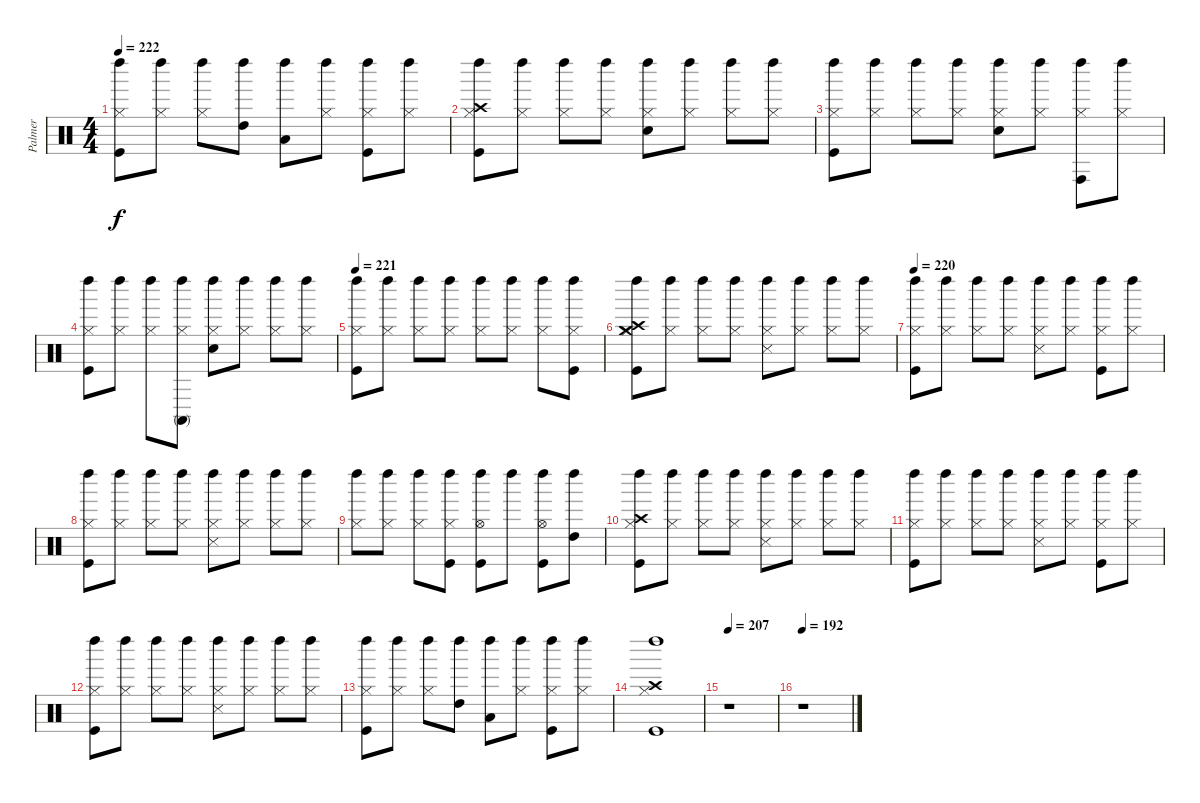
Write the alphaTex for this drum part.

\track ("Palmer" "Palmer") {instrument percussion}
\staff {score}
\articulation defaults
\ts (4 4)
\tempo 222
\clef neutral
\ks c
("Kick (hit)" "Hi-Hat (closed)" "Left Maraca (hit)").8{dy f} ("Hi-Hat (closed)" "Left Maraca (hit)").8 ("Hi-Hat (closed)" "Left Maraca (hit)").8 ("High Tom (hit)" "Left Maraca (hit)").8 ("Low Tom (hit)" "Left Maraca (hit)").8 ("Hi-Hat (closed)" "Left Maraca (hit)").8 ("Kick (hit)" "Hi-Hat (closed)" "Left Maraca (hit)").8 ("Hi-Hat (closed)" "Left Maraca (hit)").8 |
("Kick (hit)" "Hi-Hat (closed)" "Crash high (hit)" "Left Maraca (hit)").8 ("Hi-Hat (closed)" "Left Maraca (hit)").8 ("Hi-Hat (closed)" "Left Maraca (hit)").8 ("Hi-Hat (closed)" "Left Maraca (hit)").8 ("Snare (hit) 2" "Hi-Hat (closed)" "Left Maraca (hit)").8 ("Hi-Hat (closed)" "Left Maraca (hit)").8 ("Hi-Hat (closed)" "Left Maraca (hit)").8 ("Hi-Hat (closed)" "Left Maraca (hit)").8 |
("Kick (hit)" "Hi-Hat (closed)" "Left Maraca (hit)").8 ("Hi-Hat (closed)" "Left Maraca (hit)").8 ("Hi-Hat (closed)" "Left Maraca (hit)").8 ("Hi-Hat (closed)" "Left Maraca (hit)").8 ("Snare (hit) 2" "Hi-Hat (closed)" "Left Maraca (hit)").8 ("Hi-Hat (closed)" "Left Maraca (hit)").8 ("Hi-Hat (closed)" "Conga high (hit)" "Left Maraca (hit)").8 ("Hi-Hat (closed)" "Left Maraca (hit)").8 |
("Kick (hit)" "Hi-Hat (closed)" "Left Maraca (hit)").8 ("Hi-Hat (closed)" "Left Maraca (hit)").8 ("Hi-Hat (closed)" "Left Maraca (hit)").8 ("Hi-Hat (closed)" "Conga high (mute)" "Left Maraca (hit)").8 ("Snare (hit) 2" "Hi-Hat (closed)" "Left Maraca (hit)").8 ("Hi-Hat (closed)" "Left Maraca (hit)").8 ("Hi-Hat (closed)" "Left Maraca (hit)").8 ("Hi-Hat (closed)" "Left Maraca (hit)").8 |
\tempo 221
("Kick (hit)" "Hi-Hat (closed)" "Left Maraca (hit)").8 ("Hi-Hat (closed)" "Left Maraca (hit)").8 ("Hi-Hat (closed)" "Left Maraca (hit)").8 ("Hi-Hat (closed)" "Left Maraca (hit)").8 ("Hi-Hat (closed)" "Left Maraca (hit)").8 ("Hi-Hat (closed)" "Left Maraca (hit)").8 ("Hi-Hat (closed)" "Left Maraca (hit)").8 ("Kick (hit)" "Hi-Hat (closed)" "Left Maraca (hit)").8 |
("Crash medium (hit)" "Kick (hit)" "Hi-Hat (closed)" "Crash high (hit)" "Left Maraca (hit)").8 ("Hi-Hat (closed)" "Left Maraca (hit)").8 ("Hi-Hat (closed)" "Left Maraca (hit)").8 ("Hi-Hat (closed)" "Left Maraca (hit)").8 ("Hi-Hat (closed)" "Snare (side stick) 3" "Left Maraca (hit)").8 ("Hi-Hat (closed)" "Left Maraca (hit)").8 ("Hi-Hat (closed)" "Left Maraca (hit)").8 ("Hi-Hat (closed)" "Left Maraca (hit)").8 |
\tempo 220
("Kick (hit)" "Hi-Hat (closed)" "Left Maraca (hit)").8 ("Hi-Hat (closed)" "Left Maraca (hit)").8 ("Hi-Hat (closed)" "Left Maraca (hit)").8 ("Hi-Hat (closed)" "Left Maraca (hit)").8 ("Hi-Hat (closed)" "Snare (side stick) 3" "Left Maraca (hit)").8 ("Hi-Hat (closed)" "Left Maraca (hit)").8 ("Kick (hit)" "Hi-Hat (closed)" "Left Maraca (hit)").8 ("Hi-Hat (closed)" "Left Maraca (hit)").8 |
("Kick (hit)" "Hi-Hat (closed)" "Left Maraca (hit)").8 ("Hi-Hat (closed)" "Left Maraca (hit)").8 ("Hi-Hat (closed)" "Left Maraca (hit)").8 ("Hi-Hat (closed)" "Left Maraca (hit)").8 ("Hi-Hat (closed)" "Snare (side stick) 3" "Left Maraca (hit)").8 ("Hi-Hat (closed)" "Left Maraca (hit)").8 ("Hi-Hat (closed)" "Left Maraca (hit)").8 ("Hi-Hat (closed)" "Left Maraca (hit)").8 |
("Hi-Hat (closed)" "Left Maraca (hit)").8 ("Hi-Hat (closed)" "Left Maraca (hit)").8 ("Hi-Hat (closed)" "Left Maraca (hit)").8 ("Kick (hit)" "Hi-Hat (closed)" "Left Maraca (hit)").8 ("Kick (hit)" "Hi-Hat (open)" "Left Maraca (hit)").8 "Left Maraca (hit)".8 ("Kick (hit)" "Hi-Hat (open)" "Left Maraca (hit)").8 ("High Tom (hit)" "Left Maraca (hit)").8 |
("Kick (hit)" "Hi-Hat (closed)" "Crash high (hit)" "Left Maraca (hit)").8 ("Hi-Hat (closed)" "Left Maraca (hit)").8 ("Hi-Hat (closed)" "Left Maraca (hit)").8 ("Hi-Hat (closed)" "Left Maraca (hit)").8 ("Hi-Hat (closed)" "Snare (side stick) 3" "Left Maraca (hit)").8 ("Hi-Hat (closed)" "Left Maraca (hit)").8 ("Hi-Hat (closed)" "Left Maraca (hit)").8 ("Hi-Hat (closed)" "Left Maraca (hit)").8 |
("Kick (hit)" "Hi-Hat (closed)" "Left Maraca (hit)").8 ("Hi-Hat (closed)" "Left Maraca (hit)").8 ("Hi-Hat (closed)" "Left Maraca (hit)").8 ("Hi-Hat (closed)" "Left Maraca (hit)").8 ("Hi-Hat (closed)" "Snare (side stick) 3" "Left Maraca (hit)").8 ("Hi-Hat (closed)" "Left Maraca (hit)").8 ("Kick (hit)" "Hi-Hat (closed)" "Left Maraca (hit)").8 ("Hi-Hat (closed)" "Left Maraca (hit)").8 |
("Kick (hit)" "Hi-Hat (closed)" "Left Maraca (hit)").8 ("Hi-Hat (closed)" "Left Maraca (hit)").8 ("Hi-Hat (closed)" "Left Maraca (hit)").8 ("Hi-Hat (closed)" "Left Maraca (hit)").8 ("Hi-Hat (closed)" "Snare (side stick) 3" "Left Maraca (hit)").8 ("Hi-Hat (closed)" "Left Maraca (hit)").8 ("Hi-Hat (closed)" "Left Maraca (hit)").8 ("Hi-Hat (closed)" "Left Maraca (hit)").8 |
("Kick (hit)" "Hi-Hat (closed)" "Left Maraca (hit)").8 ("Hi-Hat (closed)" "Left Maraca (hit)").8 ("Hi-Hat (closed)" "Left Maraca (hit)").8 ("High Tom (hit)" "Left Maraca (hit)").8 ("Low Tom (hit)" "Left Maraca (hit)").8 ("Hi-Hat (closed)" "Left Maraca (hit)").8 ("Kick (hit)" "Hi-Hat (closed)" "Left Maraca (hit)").8 ("Hi-Hat (closed)" "Left Maraca (hit)").8 |
("Kick (hit)" "Hi-Hat (closed)" "Crash high (hit)" "Left Maraca (hit)").1 |
\tempo 207
r.1 |
\tempo 192
r.1
